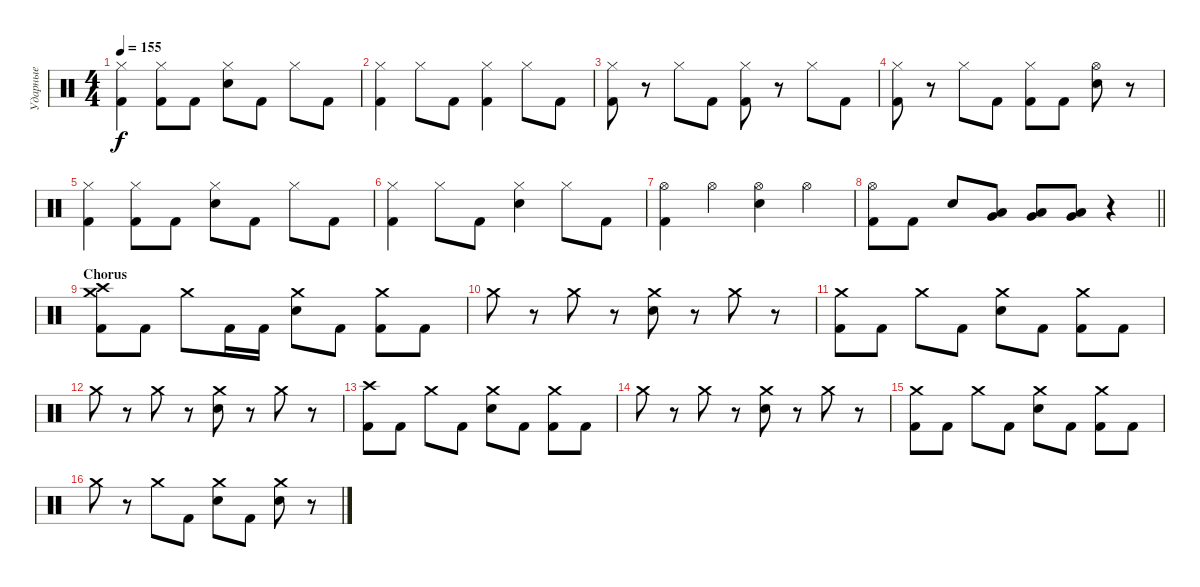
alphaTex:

\track ("Ударные" "Ударные") {instrument percussion}
\staff {score}
\articulation defaults
\ts (4 4)
\tempo 155
\clef neutral
\ks c
("Hi-Hat (closed)" "Kick (hit) 2").4{dy f} ("Hi-Hat (closed)" "Kick (hit) 2").8 "Kick (hit) 2".8 ("Hi-Hat (closed)" "Electric Snare (hit)").8 "Kick (hit) 2".8 "Hi-Hat (closed)".8 "Kick (hit) 2".8 |
("Hi-Hat (closed)" "Kick (hit) 2").4 "Hi-Hat (closed)".8 "Kick (hit) 2".8 ("Hi-Hat (closed)" "Kick (hit) 2").4 "Hi-Hat (closed)".8 "Kick (hit) 2".8 |
("Hi-Hat (closed)" "Kick (hit) 2").8 r.8 "Hi-Hat (closed)".8 "Kick (hit) 2".8 ("Hi-Hat (closed)" "Kick (hit) 2").8 r.8 "Hi-Hat (closed)".8 "Kick (hit) 2".8 |
("Hi-Hat (closed)" "Kick (hit) 2").8 r.8 "Hi-Hat (closed)".8 "Kick (hit) 2".8 ("Hi-Hat (closed)" "Kick (hit) 2").8 "Kick (hit) 2".8 ("Hi-Hat (open)" "Electric Snare (hit)").8 r.8 |
("Hi-Hat (closed)" "Kick (hit) 2").4 ("Hi-Hat (closed)" "Kick (hit) 2").8 "Kick (hit) 2".8 ("Hi-Hat (closed)" "Electric Snare (hit)").8 "Kick (hit) 2".8 "Hi-Hat (closed)".8 "Kick (hit) 2".8 |
("Hi-Hat (closed)" "Kick (hit) 2").4 "Hi-Hat (closed)".8 "Kick (hit) 2".8 ("Hi-Hat (closed)" "Electric Snare (hit)").4 "Hi-Hat (closed)".8 "Kick (hit) 2".8 |
("Hi-Hat (open)" "Kick (hit) 2").4 "Hi-Hat (open)".4 ("Hi-Hat (open)" "Electric Snare (hit)").4 "Hi-Hat (open)".4 |
\barLineRight lightlight
("Hi-Hat (open)" "Kick (hit) 2").8 "Kick (hit) 2".8 "Electric Snare (hit)".8 ("Low Tom (hit)" "Very Low Tom (hit)").8 ("Low Tom (hit)" "Very Low Tom (hit)").8 ("Low Tom (hit)" "Very Low Tom (hit)").8 r.4 |
\section ("" "Chorus")
("Crash high (hit)" "Crash medium (hit)" "Kick (hit) 2").8 "Kick (hit) 2".8 "Crash medium (hit)".8 "Kick (hit) 2".16 "Kick (hit) 2".16 ("Crash medium (hit)" "Electric Snare (hit)").8 "Kick (hit) 2".8 ("Crash medium (hit)" "Kick (hit) 2").8 "Kick (hit) 2".8 |
"Crash medium (hit)".8 r.8 "Crash medium (hit)".8 r.8 ("Crash medium (hit)" "Electric Snare (hit)").8 r.8 "Crash medium (hit)".8 r.8 |
("Crash medium (hit)" "Kick (hit) 2").8 "Kick (hit) 2".8 "Crash medium (hit)".8 "Kick (hit) 2".8 ("Crash medium (hit)" "Electric Snare (hit)").8 "Kick (hit) 2".8 ("Crash medium (hit)" "Kick (hit) 2").8 "Kick (hit) 2".8 |
"Crash medium (hit)".8 r.8 "Crash medium (hit)".8 r.8 ("Crash medium (hit)" "Electric Snare (hit)").8 r.8 "Crash medium (hit)".8 r.8 |
("Crash high (hit)" "Kick (hit) 2").8 "Kick (hit) 2".8 "Crash medium (hit)".8 "Kick (hit) 2".8 ("Crash medium (hit)" "Electric Snare (hit)").8 "Kick (hit) 2".8 ("Crash medium (hit)" "Kick (hit) 2").8 "Kick (hit) 2".8 |
"Crash medium (hit)".8 r.8 "Crash medium (hit)".8 r.8 ("Crash medium (hit)" "Electric Snare (hit)").8 r.8 "Crash medium (hit)".8 r.8 |
("Crash medium (hit)" "Kick (hit) 2").8 "Kick (hit) 2".8 "Crash medium (hit)".8 "Kick (hit) 2".8 ("Crash medium (hit)" "Electric Snare (hit)").8 "Kick (hit) 2".8 ("Crash medium (hit)" "Kick (hit) 2").8 "Kick (hit) 2".8 |
"Crash medium (hit)".8 r.8 "Crash medium (hit)".8 "Kick (hit) 2".8 ("Crash medium (hit)" "Electric Snare (hit)").8 "Kick (hit) 2".8 ("Crash medium (hit)" "Electric Snare (hit)").8 r.8
